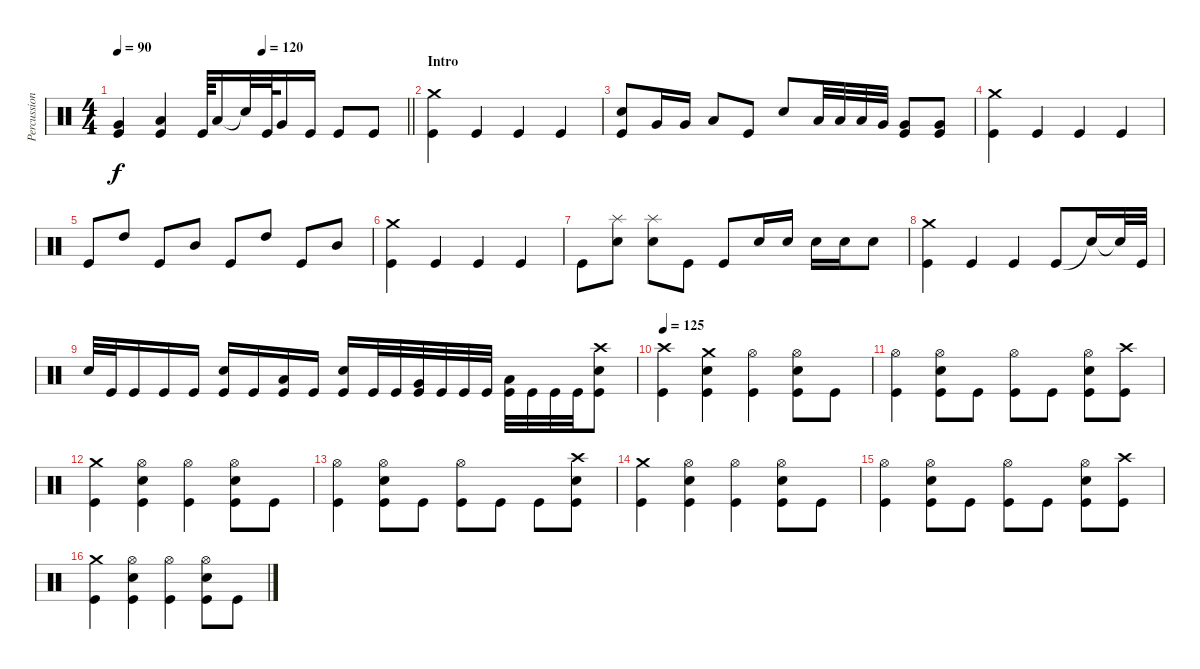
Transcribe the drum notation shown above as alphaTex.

\track ("Percussion" "Percussion") {instrument percussion}
\staff {score}
\articulation defaults
\ts (4 4)
\tempo 90
\tempo (120 0.5)
\tempo 90
\clef neutral
\barLineRight lightlight
\ks c
("Kick (hit)" "Very Low Tom (hit)").4{dy f} ("Kick (hit)" "Low Floor Tom (hit)").4 "Kick (hit)".64 "Low Tom (hit)".16 "Snare (hit)"{t}.32 "Kick (hit)".64 "Very Low Tom (hit)".16 "Kick (hit)".16 "Kick (hit)".8 "Kick (hit)".8 |
\section ("" "Intro")
("Kick (hit)" "Crash medium (hit)").4 "Kick (hit)".4 "Kick (hit)".4 "Kick (hit)".4 |
("Kick (hit)" "Snare (hit) 2").8 "Very Low Tom (hit)".16 "Very Low Tom (hit)".16 "Low Floor Tom (hit)".8 "Kick (hit)".8 "Snare (hit) 2".8 "Low Tom (hit)".32 "Low Tom (hit)".32 "Low Tom (hit)".32 "Very Low Tom (hit)".32 ("Kick (hit)" "Very Low Tom (hit)").8 ("Kick (hit)" "Very Low Tom (hit)").8 |
("Kick (hit)" "Crash medium (hit)").4 "Kick (hit)".4 "Kick (hit)".4 "Kick (hit)".4 |
"Kick (hit)".8 "High Tom (hit)".8 "Kick (hit)".8 "Mid Tom (hit)".8 "Kick (hit)".8 "High Tom (hit)".8 "Kick (hit)".8 "Mid Tom (hit)".8 |
("Kick (hit)" "Crash medium (hit)").4 "Kick (hit)".4 "Kick (hit)".4 "Kick (hit)".4 |
"Kick (hit)".8 ("Snare (hit) 2" "Splash (hit)").8 ("Snare (hit) 2" "Splash (hit)").8 "Kick (hit)".8 "Kick (hit)".8 "Snare (hit) 2".16 "Snare (hit) 2".16 "Snare (hit) 2".16 "Snare (hit) 2".16 "Snare (hit) 2".8 |
("Kick (hit)" "Crash medium (hit)").4 "Kick (hit)".4 "Kick (hit)".4 "Kick (hit)".8 "Snare (hit)"{t}.16 "Snare (hit)"{t}.32 "Kick (hit)".32 |
"Snare (hit) 2".32 "Kick (hit)".32 "Kick (hit)".16 "Kick (hit)".16 "Kick (hit)".16 ("Kick (hit)" "Snare (hit) 2").16 "Kick (hit)".16 ("Kick (hit)" "Low Tom (hit)").16 "Kick (hit)".16 ("Kick (hit)" "Snare (hit) 2").16 "Kick (hit)".32 "Kick (hit)".32 ("Kick (hit)" "Very Low Tom (hit)").32 "Kick (hit)".32 "Kick (hit)".32 "Kick (hit)".32 ("Kick (hit)" "Low Floor Tom (hit)").32 "Kick (hit)".32 "Kick (hit)".32 "Kick (hit)".32 ("Kick (hit)" "Crash high (hit)" "Snare (hit) 2").8 |
\tempo 125
("Kick (hit)" "Crash high (hit)").4 ("Kick (hit)" "Snare (hit) 2" "Crash medium (hit)").4 ("Kick (hit)" "Hi-Hat (open)").4 ("Kick (hit)" "Snare (hit) 2" "Hi-Hat (open)").8 "Kick (hit)".8 |
("Kick (hit)" "Hi-Hat (open)").4 ("Kick (hit)" "Snare (hit) 2" "Hi-Hat (open)").8 "Kick (hit)".8 ("Kick (hit)" "Hi-Hat (open)").8 "Kick (hit)".8 ("Kick (hit)" "Snare (hit) 2" "Hi-Hat (open)").8 ("Kick (hit)" "Crash high (hit)").8 |
("Kick (hit)" "Crash medium (hit)").4 ("Kick (hit)" "Snare (hit) 2" "Hi-Hat (open)").4 ("Kick (hit)" "Hi-Hat (open)").4 ("Kick (hit)" "Snare (hit) 2" "Hi-Hat (open)").8 "Kick (hit)".8 |
("Kick (hit)" "Hi-Hat (open)").4 ("Kick (hit)" "Snare (hit) 2" "Hi-Hat (open)").8 "Kick (hit)".8 ("Kick (hit)" "Hi-Hat (open)").8 "Kick (hit)".8 "Kick (hit)".8 ("Kick (hit)" "Snare (hit) 2" "Crash high (hit)").8 |
("Kick (hit)" "Crash medium (hit)").4 ("Kick (hit)" "Snare (hit) 2" "Hi-Hat (open)").4 ("Kick (hit)" "Hi-Hat (open)").4 ("Kick (hit)" "Snare (hit) 2" "Hi-Hat (open)").8 "Kick (hit)".8 |
("Kick (hit)" "Hi-Hat (open)").4 ("Kick (hit)" "Snare (hit) 2" "Hi-Hat (open)").8 "Kick (hit)".8 ("Kick (hit)" "Hi-Hat (open)").8 "Kick (hit)".8 ("Kick (hit)" "Snare (hit) 2" "Hi-Hat (open)").8 ("Kick (hit)" "Crash high (hit)").8 |
("Kick (hit)" "Crash medium (hit)").4 ("Kick (hit)" "Snare (hit) 2" "Hi-Hat (open)").4 ("Kick (hit)" "Hi-Hat (open)").4 ("Kick (hit)" "Snare (hit) 2" "Hi-Hat (open)").8 "Kick (hit)".8
